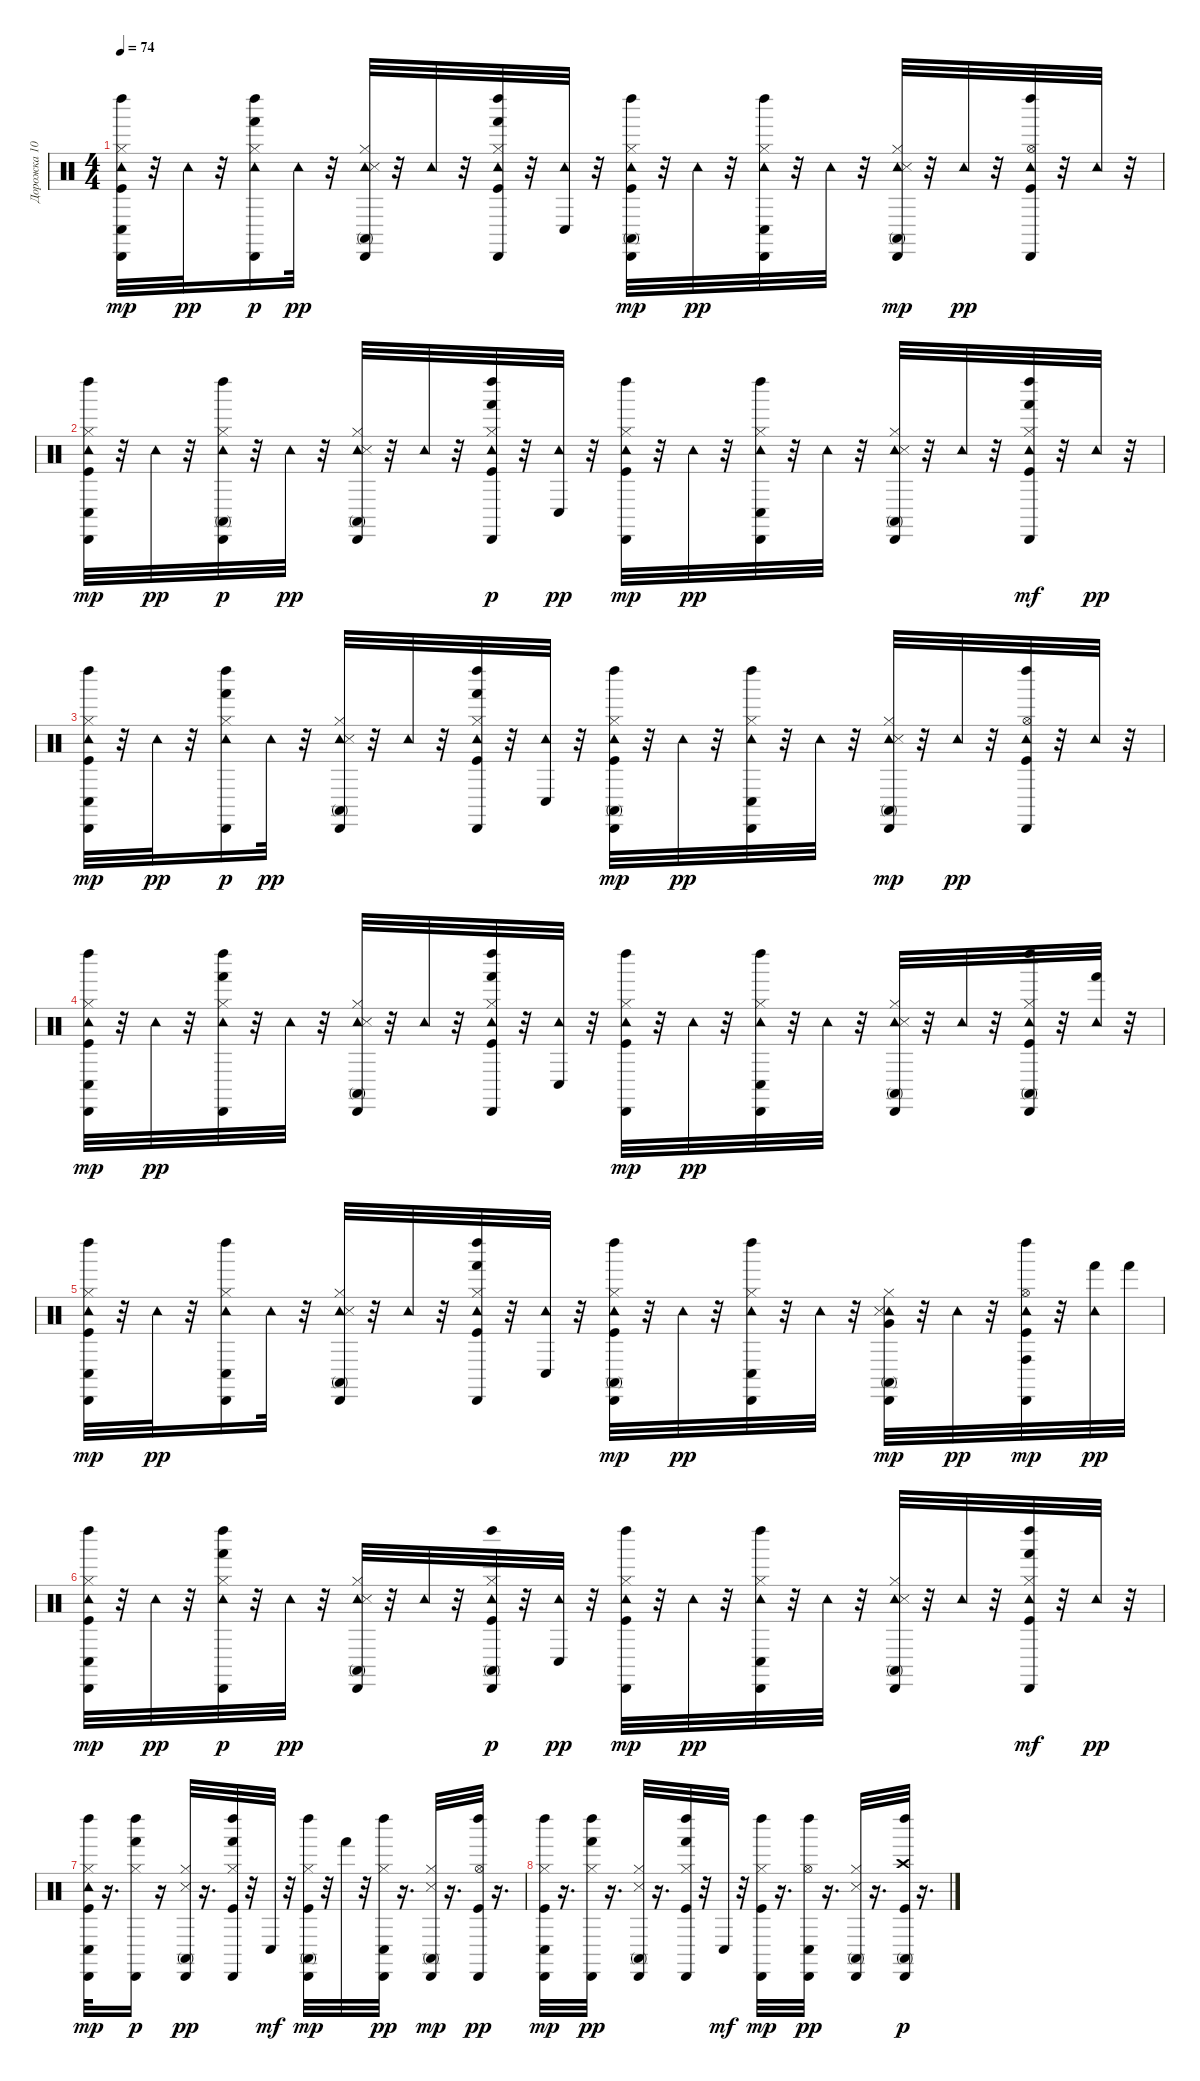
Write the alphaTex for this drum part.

\track ("Дорожка 10" "Дорожка 10") {instrument percussion}
\staff {score}
\articulation defaults
\ts (4 4)
\tempo 74
\clef neutral
\ks c
("Conga low (hit)" "Tambourine (hit)" "Kick (hit)" "Hi-Hat (closed)" "Cabasa (hit)" "Left Maraca (hit)").32{dy mp} r.32 "Tambourine (hit)".32{dy pp} r.32 ("Hi-Hat (closed)" "Tambourine (hit)" "Cabasa (hit)" "Left Maraca (hit)" "Hand (hit)").16{dy p} "Tambourine (hit)".32{dy pp} r.32 ("Tambourine (hit)" "Snare (side stick) 3" "Hi-Hat (closed)" "Conga high (mute)" "Cabasa (hit)").32 r.32 "Tambourine (hit)".32 r.32 ("Kick (hit)" "Hi-Hat (closed)" "Tambourine (hit)" "Cabasa (hit)" "Left Maraca (hit)" "Hand (hit)").32 r.32 ("Conga low (hit)" "Tambourine (hit)").32 r.32 ("Kick (hit)" "Hi-Hat (closed)" "Tambourine (hit)" "Conga high (mute)" "Cabasa (hit)" "Left Maraca (hit)").32{dy mp} r.32 "Tambourine (hit)".32{dy pp} r.32 ("Conga low (hit)" "Hi-Hat (closed)" "Tambourine (hit)" "Cabasa (hit)" "Left Maraca (hit)").32 r.32 "Tambourine (hit)".32 r.32 ("Tambourine (hit)" "Snare (side stick) 3" "Hi-Hat (closed)" "Cabasa (hit)" "Conga high (mute)").32{dy mp} r.32 "Tambourine (hit)".32{dy pp} r.32 ("Kick (hit)" "Hi-Hat (open)" "Tambourine (hit)" "Cabasa (hit)" "Left Maraca (hit)").32 r.32 "Tambourine (hit)".32 r.32 |
("Conga low (hit)" "Tambourine (hit)" "Kick (hit)" "Hi-Hat (closed)" "Cabasa (hit)" "Left Maraca (hit)").32{dy mp} r.32 "Tambourine (hit)".32{dy pp} r.32 ("Hi-Hat (closed)" "Tambourine (hit)" "Cabasa (hit)" "Left Maraca (hit)" "Conga high (mute)").32{dy p} r.32 "Tambourine (hit)".32{dy pp} r.32 ("Tambourine (hit)" "Snare (side stick) 3" "Hi-Hat (closed)" "Conga high (mute)" "Cabasa (hit)").32 r.32 "Tambourine (hit)".32 r.32 ("Kick (hit)" "Hi-Hat (closed)" "Tambourine (hit)" "Cabasa (hit)" "Left Maraca (hit)" "Hand (hit)").32{dy p} r.32 ("Conga low (hit)" "Tambourine (hit)").32{dy pp} r.32 ("Kick (hit)" "Hi-Hat (closed)" "Tambourine (hit)" "Cabasa (hit)" "Left Maraca (hit)").32{dy mp} r.32 "Tambourine (hit)".32{dy pp} r.32 ("Conga low (hit)" "Hi-Hat (closed)" "Tambourine (hit)" "Cabasa (hit)" "Left Maraca (hit)").32 r.32 "Tambourine (hit)".32 r.32 ("Conga high (mute)" "Tambourine (hit)" "Snare (side stick) 3" "Hi-Hat (closed)" "Cabasa (hit)").32 r.32 "Tambourine (hit)".32 r.32 ("Kick (hit)" "Hi-Hat (closed)" "Tambourine (hit)" "Cabasa (hit)" "Left Maraca (hit)" "Hand (hit)").32{dy mf} r.32 "Tambourine (hit)".32{dy pp} r.32 |
("Conga low (hit)" "Tambourine (hit)" "Kick (hit)" "Hi-Hat (closed)" "Cabasa (hit)" "Left Maraca (hit)").32{dy mp} r.32 "Tambourine (hit)".32{dy pp} r.32 ("Hi-Hat (closed)" "Tambourine (hit)" "Cabasa (hit)" "Left Maraca (hit)" "Hand (hit)").16{dy p} "Tambourine (hit)".32{dy pp} r.32 ("Tambourine (hit)" "Snare (side stick) 3" "Hi-Hat (closed)" "Conga high (mute)" "Cabasa (hit)").32 r.32 "Tambourine (hit)".32 r.32 ("Kick (hit)" "Hi-Hat (closed)" "Tambourine (hit)" "Cabasa (hit)" "Left Maraca (hit)" "Hand (hit)").32 r.32 ("Conga low (hit)" "Tambourine (hit)").32 r.32 ("Kick (hit)" "Hi-Hat (closed)" "Tambourine (hit)" "Conga high (mute)" "Cabasa (hit)" "Left Maraca (hit)").32{dy mp} r.32 "Tambourine (hit)".32{dy pp} r.32 ("Conga low (hit)" "Hi-Hat (closed)" "Tambourine (hit)" "Cabasa (hit)" "Left Maraca (hit)").32 r.32 "Tambourine (hit)".32 r.32 ("Tambourine (hit)" "Snare (side stick) 3" "Hi-Hat (closed)" "Cabasa (hit)" "Conga high (mute)").32{dy mp} r.32 "Tambourine (hit)".32{dy pp} r.32 ("Kick (hit)" "Hi-Hat (open)" "Tambourine (hit)" "Cabasa (hit)" "Left Maraca (hit)").32 r.32 "Tambourine (hit)".32 r.32 |
("Conga low (hit)" "Tambourine (hit)" "Kick (hit)" "Hi-Hat (closed)" "Cabasa (hit)" "Left Maraca (hit)").32{dy mp} r.32 "Tambourine (hit)".32{dy pp} r.32 ("Hand (hit)" "Hi-Hat (closed)" "Tambourine (hit)" "Cabasa (hit)" "Left Maraca (hit)").32 r.32 "Tambourine (hit)".32 r.32 ("Conga high (mute)" "Tambourine (hit)" "Snare (side stick) 3" "Hi-Hat (closed)" "Cabasa (hit)").32 r.32 "Tambourine (hit)".32 r.32 ("Hand (hit)" "Kick (hit)" "Hi-Hat (closed)" "Tambourine (hit)" "Cabasa (hit)" "Left Maraca (hit)").32 r.32 ("Conga low (hit)" "Tambourine (hit)").32 r.32 ("Kick (hit)" "Hi-Hat (closed)" "Tambourine (hit)" "Cabasa (hit)" "Left Maraca (hit)").32{dy mp} r.32 "Tambourine (hit)".32{dy pp} r.32 ("Conga low (hit)" "Hi-Hat (closed)" "Tambourine (hit)" "Cabasa (hit)" "Left Maraca (hit)").32 r.32 "Tambourine (hit)".32 r.32 ("Conga high (mute)" "Tambourine (hit)" "Snare (side stick) 3" "Hi-Hat (closed)" "Cabasa (hit)").32 r.32 "Tambourine (hit)".32 r.32 ("Conga high (mute)" "Kick (hit)" "Hi-Hat (closed)" "Tambourine (hit)" "Cabasa (hit)" "Left Maraca (hit)").32 r.32 ("Hand (hit)" "Tambourine (hit)").32 r.32 |
("Conga low (hit)" "Tambourine (hit)" "Kick (hit)" "Hi-Hat (closed)" "Cabasa (hit)" "Left Maraca (hit)").32{dy mp} r.32 "Tambourine (hit)".32{dy pp} r.32 ("Conga low (hit)" "Hi-Hat (closed)" "Tambourine (hit)" "Cabasa (hit)" "Left Maraca (hit)").16 "Tambourine (hit)".32 r.32 ("Conga high (mute)" "Tambourine (hit)" "Snare (side stick) 3" "Hi-Hat (closed)" "Cabasa (hit)").32 r.32 "Tambourine (hit)".32 r.32 ("Hand (hit)" "Kick (hit)" "Hi-Hat (closed)" "Tambourine (hit)" "Cabasa (hit)" "Left Maraca (hit)").32 r.32 ("Conga low (hit)" "Tambourine (hit)").32 r.32 ("Kick (hit)" "Hi-Hat (closed)" "Tambourine (hit)" "Conga high (mute)" "Cabasa (hit)" "Left Maraca (hit)").32{dy mp} r.32 "Tambourine (hit)".32{dy pp} r.32 ("Conga low (hit)" "Hi-Hat (closed)" "Tambourine (hit)" "Cabasa (hit)" "Left Maraca (hit)").32 r.32 "Tambourine (hit)".32 r.32 ("Tambourine (hit)" "Snare (side stick) 3" "Hi-Hat (closed)" "Cabasa (hit)" "Very Low Tom (hit)" "Conga high (mute)").32{dy mp} r.32 "Tambourine (hit)".32{dy pp} r.32 ("Kick (hit)" "Hi-Hat (open)" "Tambourine (hit)" "Cabasa (hit)" "Left Maraca (hit)" "Conga high (hit)").32{dy mp} r.32 ("Hand (hit)" "Tambourine (hit)").32{dy pp} "Hand (hit)".32 |
("Conga low (hit)" "Tambourine (hit)" "Kick (hit)" "Hi-Hat (closed)" "Cabasa (hit)" "Left Maraca (hit)").32{dy mp} r.32 "Tambourine (hit)".32{dy pp} r.32 ("Hi-Hat (closed)" "Tambourine (hit)" "Cabasa (hit)" "Left Maraca (hit)" "Hand (hit)").32{dy p} r.32 "Tambourine (hit)".32{dy pp} r.32 ("Tambourine (hit)" "Snare (side stick) 3" "Hi-Hat (closed)" "Conga high (mute)" "Cabasa (hit)").32 r.32 "Tambourine (hit)".32 r.32 ("Kick (hit)" "Hi-Hat (closed)" "Tambourine (hit)" "Cabasa (hit)" "Left Maraca (hit)" "Conga high (mute)").32{dy p} r.32 ("Conga low (hit)" "Tambourine (hit)").32{dy pp} r.32 ("Kick (hit)" "Hi-Hat (closed)" "Tambourine (hit)" "Cabasa (hit)" "Left Maraca (hit)").32{dy mp} r.32 "Tambourine (hit)".32{dy pp} r.32 ("Conga low (hit)" "Hi-Hat (closed)" "Tambourine (hit)" "Cabasa (hit)" "Left Maraca (hit)").32 r.32 "Tambourine (hit)".32 r.32 ("Conga high (mute)" "Tambourine (hit)" "Snare (side stick) 3" "Hi-Hat (closed)" "Cabasa (hit)").32 r.32 "Tambourine (hit)".32 r.32 ("Kick (hit)" "Hi-Hat (closed)" "Tambourine (hit)" "Cabasa (hit)" "Left Maraca (hit)" "Hand (hit)").32{dy mf} r.32 "Tambourine (hit)".32{dy pp} r.32 |
("Conga low (hit)" "Tambourine (hit)" "Kick (hit)" "Hi-Hat (closed)" "Cabasa (hit)" "Left Maraca (hit)").32{dy mp} r.16{d} ("Hi-Hat (closed)" "Cabasa (hit)" "Left Maraca (hit)" "Hand (hit)").16{dy p} r.16 ("Snare (side stick) 3" "Hi-Hat (closed)" "Conga high (mute)" "Cabasa (hit)").32{dy pp} r.16{d} ("Kick (hit)" "Hi-Hat (closed)" "Cabasa (hit)" "Left Maraca (hit)" "Hand (hit)").32 r.32 "Conga low (hit)".32{dy mf} r.32 ("Kick (hit)" "Hi-Hat (closed)" "Conga high (mute)" "Cabasa (hit)" "Left Maraca (hit)").32{dy mp} r.32 "Hand (hit)".32 r.32 ("Conga low (hit)" "Hi-Hat (closed)" "Cabasa (hit)" "Left Maraca (hit)").32{dy pp} r.16{d} ("Snare (side stick) 3" "Hi-Hat (closed)" "Cabasa (hit)" "Conga high (mute)").32{dy mp} r.16{d} ("Kick (hit)" "Hi-Hat (open)" "Cabasa (hit)" "Left Maraca (hit)").32{dy pp} r.16{d} |
("Conga low (hit)" "Kick (hit)" "Hi-Hat (closed)" "Cabasa (hit)" "Left Maraca (hit)").32{dy mp} r.16{d} ("Hand (hit)" "Hi-Hat (closed)" "Cabasa (hit)" "Left Maraca (hit)").32{dy pp} r.16{d} ("Conga high (mute)" "Snare (side stick) 3" "Hi-Hat (closed)" "Cabasa (hit)").32 r.16{d} ("Hand (hit)" "Kick (hit)" "Hi-Hat (closed)" "Cabasa (hit)" "Left Maraca (hit)").32 r.32 "Conga low (hit)".32{dy mf} r.32 ("Kick (hit)" "Hi-Hat (closed)" "Cabasa (hit)" "Left Maraca (hit)").32{dy mp} r.16{d} ("Conga low (hit)" "Hi-Hat (open)" "Cabasa (hit)" "Left Maraca (hit)").32{dy pp} r.16{d} ("Conga high (mute)" "Snare (side stick) 3" "Hi-Hat (closed)" "Cabasa (hit)").32 r.16{d} ("Conga high (mute)" "Kick (hit)" "Cabasa (hit)" "Left Maraca (hit)" "Crash high (hit)").32{dy p} r.16{d}
